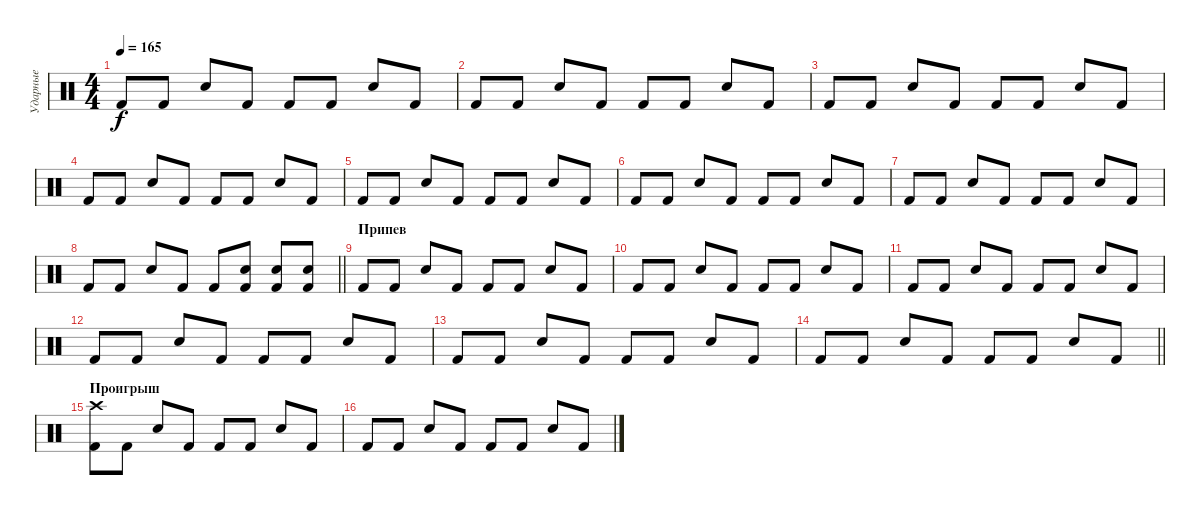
\track ("Ударные" "Ударные") {instrument percussion}
\staff {score}
\articulation defaults
\ts (4 4)
\tempo 165
\clef neutral
\ks c "Kick (hit) 2".8{dy f} "Kick (hit) 2".8 "Snare (hit) 2".8 "Kick (hit) 2".8 "Kick (hit) 2".8 "Kick (hit) 2".8 "Snare (hit) 2".8 "Kick (hit) 2".8
|
"Kick (hit) 2".8 "Kick (hit) 2".8 "Snare (hit) 2".8 "Kick (hit) 2".8 "Kick (hit) 2".8 "Kick (hit) 2".8 "Snare (hit) 2".8 "Kick (hit) 2".8 |
"Kick (hit) 2".8 "Kick (hit) 2".8 "Snare (hit) 2".8 "Kick (hit) 2".8 "Kick (hit) 2".8 "Kick (hit) 2".8 "Snare (hit) 2".8 "Kick (hit) 2".8 |
"Kick (hit) 2".8 "Kick (hit) 2".8 "Snare (hit) 2".8 "Kick (hit) 2".8 "Kick (hit) 2".8 "Kick (hit) 2".8 "Snare (hit) 2".8 "Kick (hit) 2".8 |
"Kick (hit) 2".8 "Kick (hit) 2".8 "Snare (hit) 2".8 "Kick (hit) 2".8 "Kick (hit) 2".8 "Kick (hit) 2".8 "Snare (hit) 2".8 "Kick (hit) 2".8 |
"Kick (hit) 2".8 "Kick (hit) 2".8 "Snare (hit) 2".8 "Kick (hit) 2".8 "Kick (hit) 2".8 "Kick (hit) 2".8 "Snare (hit) 2".8 "Kick (hit) 2".8 |
"Kick (hit) 2".8 "Kick (hit) 2".8 "Snare (hit) 2".8 "Kick (hit) 2".8 "Kick (hit) 2".8 "Kick (hit) 2".8 "Snare (hit) 2".8 "Kick (hit) 2".8 |
\barLineRight lightlight "Kick (hit) 2".8 "Kick (hit) 2".8 "Snare (hit) 2".8 "Kick (hit) 2".8 "Kick (hit) 2".8
("Kick (hit) 2" "Snare (hit) 2").8 ("Kick (hit) 2" "Snare (hit) 2").8 ("Kick (hit) 2" "Snare (hit) 2").8 |
\section ("" "Припев")
"Kick (hit) 2".8 "Kick (hit) 2".8 "Snare (hit) 2".8 "Kick (hit) 2".8 "Kick (hit) 2".8 "Kick (hit) 2".8 "Snare (hit) 2".8 "Kick (hit) 2".8 |
"Kick (hit) 2".8 "Kick (hit) 2".8 "Snare (hit) 2".8 "Kick (hit) 2".8 "Kick (hit) 2".8 "Kick (hit) 2".8 "Snare (hit) 2".8 "Kick (hit) 2".8 |
"Kick (hit) 2".8 "Kick (hit) 2".8 "Snare (hit) 2".8 "Kick (hit) 2".8 "Kick (hit) 2".8 "Kick (hit) 2".8 "Snare (hit) 2".8 "Kick (hit) 2".8 |
"Kick (hit) 2".8 "Kick (hit) 2".8 "Snare (hit) 2".8 "Kick (hit) 2".8 "Kick (hit) 2".8 "Kick (hit) 2".8 "Snare (hit) 2".8 "Kick (hit) 2".8 |
"Kick (hit) 2".8 "Kick (hit) 2".8 "Snare (hit) 2".8 "Kick (hit) 2".8 "Kick (hit) 2".8 "Kick (hit) 2".8 "Snare (hit) 2".8 "Kick (hit) 2".8 |
\barLineRight lightlight "Kick (hit) 2".8 "Kick (hit) 2".8 "Snare (hit) 2".8 "Kick (hit) 2".8 "Kick (hit) 2".8 "Kick (hit) 2".8 "Snare (hit) 2".8 "Kick (hit) 2".8
|
\section ("" "Проигрыш")
("Kick (hit) 2" "Crash high (hit)").8 "Kick (hit) 2".8 "Snare (hit) 2".8 "Kick (hit) 2".8 "Kick (hit) 2".8 "Kick (hit) 2".8 "Snare (hit) 2".8 "Kick (hit) 2".8 |
"Kick (hit) 2".8 "Kick (hit) 2".8 "Snare (hit) 2".8 "Kick (hit) 2".8 "Kick (hit) 2".8 "Kick (hit) 2".8 "Snare (hit) 2".8 "Kick (hit) 2".8
